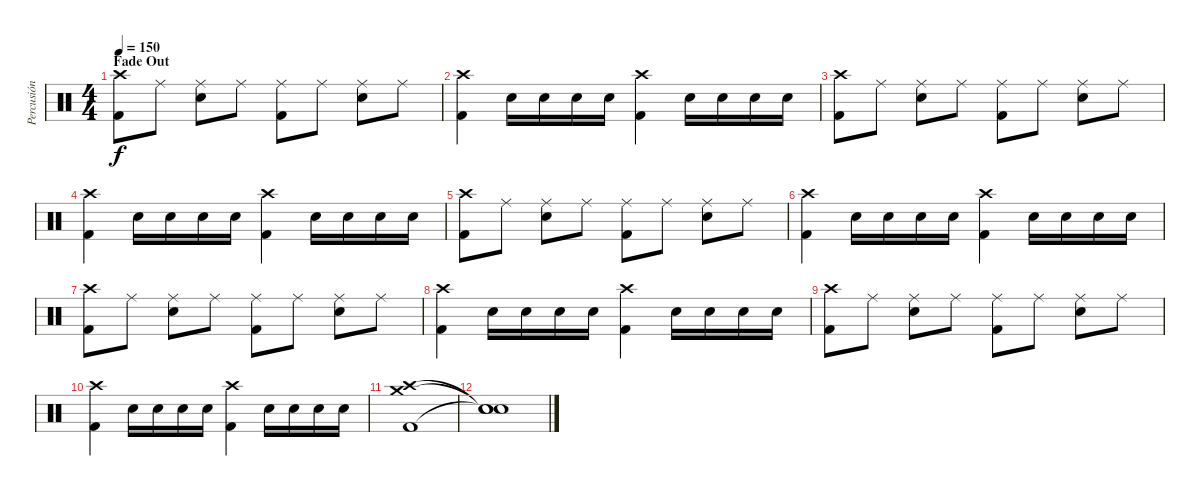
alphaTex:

\track ("Percusión" "Percusión") {instrument percussion}
\staff {score}
\articulation defaults
\ts (4 4)
\section ("" "Fade Out")
\tempo 150
\clef neutral
\ks c
("Crash high (hit)" "Kick (hit) 2").8{dy f} "Ride (middle)".8 ("Ride (middle)" "Snare (hit) 2").8 "Ride (middle)".8 ("Ride (middle)" "Kick (hit) 2").8 "Ride (middle)".8 ("Ride (middle)" "Snare (hit) 2").8 "Ride (middle)".8 |
("Crash high (hit)" "Kick (hit) 2").4 "Snare (hit) 2".16 "Snare (hit) 2".16 "Snare (hit) 2".16 "Snare (hit) 2".16 ("Crash high (hit)" "Kick (hit) 2").4 "Snare (hit) 2".16 "Snare (hit) 2".16 "Snare (hit) 2".16 "Snare (hit) 2".16 |
("Crash high (hit)" "Kick (hit) 2").8 "Ride (middle)".8 ("Ride (middle)" "Snare (hit) 2").8 "Ride (middle)".8 ("Ride (middle)" "Kick (hit) 2").8 "Ride (middle)".8 ("Ride (middle)" "Snare (hit) 2").8 "Ride (middle)".8 |
("Crash high (hit)" "Kick (hit) 2").4 "Snare (hit) 2".16 "Snare (hit) 2".16 "Snare (hit) 2".16 "Snare (hit) 2".16 ("Crash high (hit)" "Kick (hit) 2").4 "Snare (hit) 2".16 "Snare (hit) 2".16 "Snare (hit) 2".16 "Snare (hit) 2".16 |
("Crash high (hit)" "Kick (hit) 2").8 "Ride (middle)".8 ("Ride (middle)" "Snare (hit) 2").8 "Ride (middle)".8 ("Ride (middle)" "Kick (hit) 2").8 "Ride (middle)".8 ("Ride (middle)" "Snare (hit) 2").8 "Ride (middle)".8 |
("Crash high (hit)" "Kick (hit) 2").4 "Snare (hit) 2".16 "Snare (hit) 2".16 "Snare (hit) 2".16 "Snare (hit) 2".16 ("Crash high (hit)" "Kick (hit) 2").4 "Snare (hit) 2".16 "Snare (hit) 2".16 "Snare (hit) 2".16 "Snare (hit) 2".16 |
("Crash high (hit)" "Kick (hit) 2").8 "Ride (middle)".8 ("Ride (middle)" "Snare (hit) 2").8 "Ride (middle)".8 ("Ride (middle)" "Kick (hit) 2").8 "Ride (middle)".8 ("Ride (middle)" "Snare (hit) 2").8 "Ride (middle)".8 |
("Crash high (hit)" "Kick (hit) 2").4 "Snare (hit) 2".16 "Snare (hit) 2".16 "Snare (hit) 2".16 "Snare (hit) 2".16 ("Crash high (hit)" "Kick (hit) 2").4 "Snare (hit) 2".16 "Snare (hit) 2".16 "Snare (hit) 2".16 "Snare (hit) 2".16 |
("Crash high (hit)" "Kick (hit) 2").8 "Ride (middle)".8 ("Ride (middle)" "Snare (hit) 2").8 "Ride (middle)".8 ("Ride (middle)" "Kick (hit) 2").8 "Ride (middle)".8 ("Ride (middle)" "Snare (hit) 2").8 "Ride (middle)".8 |
("Crash high (hit)" "Kick (hit) 2").4 "Snare (hit) 2".16 "Snare (hit) 2".16 "Snare (hit) 2".16 "Snare (hit) 2".16 ("Crash high (hit)" "Kick (hit) 2").4 "Snare (hit) 2".16 "Snare (hit) 2".16 "Snare (hit) 2".16 "Snare (hit) 2".16 |
("Crash high (hit)" "Crash medium (hit)" "Kick (hit) 2").1 |
("Snare (hit)"{t} "Snare (hit)"{t} "Snare (hit)"{t}).1
